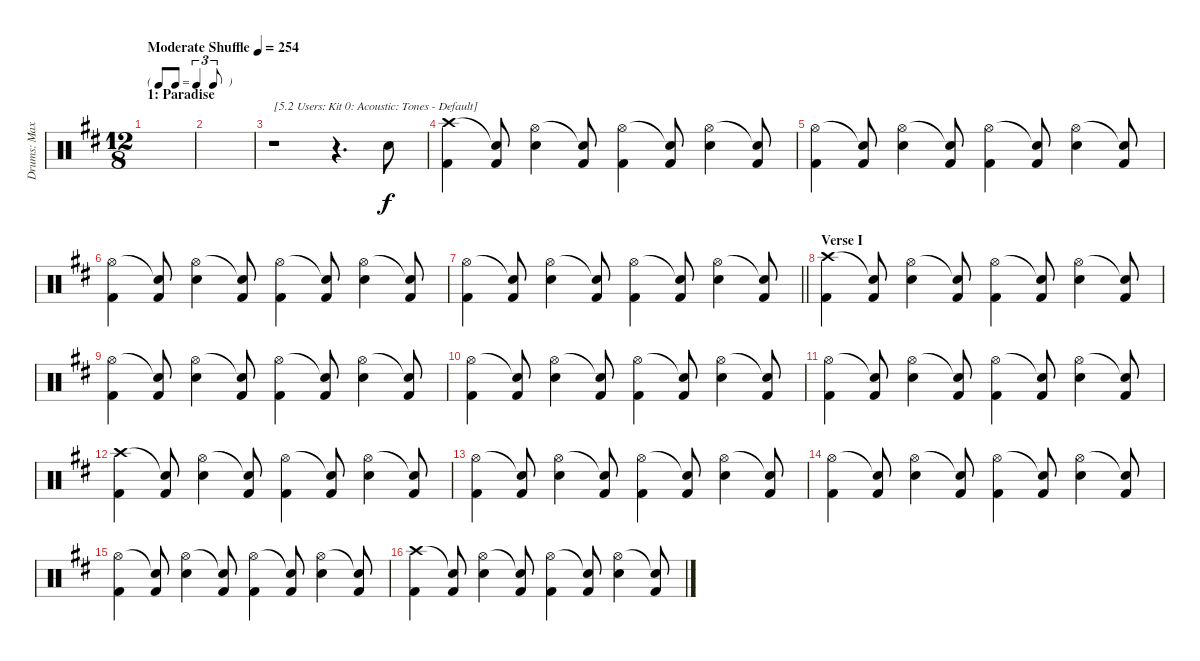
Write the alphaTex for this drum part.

\track ("Drums: Max" "Drums: Max") {instrument percussion}
\staff {score}
\articulation defaults
\ts (12 8)
\tf triplet8th
\section ("" "1: Paradise")
\tempo (254 "Moderate Shuffle")
\clef neutral
\ks d
|
|
r.1{txt "[5.2 Users: Kit 0: Acoustic: Tones - Default]"} r.4{d} "Electric Snare (hit)".8 |
("Crash high (hit)" "Kick (hit) 2").4 ("Snare (hit)"{t} "Kick (hit) 2").8 ("Hi-Hat (open)" "Electric Snare (hit)").4 ("Snare (hit)"{t} "Kick (hit) 2").8 ("Hi-Hat (open)" "Kick (hit) 2").4 ("Snare (hit)"{t} "Kick (hit) 2").8 ("Hi-Hat (open)" "Electric Snare (hit)").4 ("Snare (hit)"{t} "Kick (hit) 2").8 |
("Hi-Hat (open)" "Kick (hit) 2").4 ("Snare (hit)"{t} "Kick (hit) 2").8 ("Hi-Hat (open)" "Electric Snare (hit)").4 ("Snare (hit)"{t} "Kick (hit) 2").8 ("Hi-Hat (open)" "Kick (hit) 2").4 ("Snare (hit)"{t} "Kick (hit) 2").8 ("Hi-Hat (open)" "Electric Snare (hit)").4 ("Snare (hit)"{t} "Kick (hit) 2").8 |
("Hi-Hat (open)" "Kick (hit) 2").4 ("Snare (hit)"{t} "Kick (hit) 2").8 ("Hi-Hat (open)" "Electric Snare (hit)").4 ("Snare (hit)"{t} "Kick (hit) 2").8 ("Hi-Hat (open)" "Kick (hit) 2").4 ("Snare (hit)"{t} "Kick (hit) 2").8 ("Hi-Hat (open)" "Electric Snare (hit)").4 ("Snare (hit)"{t} "Kick (hit) 2").8 |
\barLineRight lightlight
("Hi-Hat (open)" "Kick (hit) 2").4 ("Snare (hit)"{t} "Kick (hit) 2").8 ("Hi-Hat (open)" "Electric Snare (hit)").4 ("Snare (hit)"{t} "Kick (hit) 2").8 ("Hi-Hat (open)" "Kick (hit) 2").4 ("Snare (hit)"{t} "Kick (hit) 2").8 ("Hi-Hat (open)" "Electric Snare (hit)").4 ("Snare (hit)"{t} "Kick (hit) 2").8 |
\section ("" "Verse I")
("Crash high (hit)" "Kick (hit) 2").4 ("Snare (hit)"{t} "Kick (hit) 2").8 ("Hi-Hat (open)" "Electric Snare (hit)").4 ("Snare (hit)"{t} "Kick (hit) 2").8 ("Hi-Hat (open)" "Kick (hit) 2").4 ("Snare (hit)"{t} "Kick (hit) 2").8 ("Hi-Hat (open)" "Electric Snare (hit)").4 ("Snare (hit)"{t} "Kick (hit) 2").8 |
("Hi-Hat (open)" "Kick (hit) 2").4 ("Snare (hit)"{t} "Kick (hit) 2").8 ("Hi-Hat (open)" "Electric Snare (hit)").4 ("Snare (hit)"{t} "Kick (hit) 2").8 ("Hi-Hat (open)" "Kick (hit) 2").4 ("Snare (hit)"{t} "Kick (hit) 2").8 ("Hi-Hat (open)" "Electric Snare (hit)").4 ("Snare (hit)"{t} "Kick (hit) 2").8 |
("Hi-Hat (open)" "Kick (hit) 2").4 ("Snare (hit)"{t} "Kick (hit) 2").8 ("Hi-Hat (open)" "Electric Snare (hit)").4 ("Snare (hit)"{t} "Kick (hit) 2").8 ("Hi-Hat (open)" "Kick (hit) 2").4 ("Snare (hit)"{t} "Kick (hit) 2").8 ("Hi-Hat (open)" "Electric Snare (hit)").4 ("Snare (hit)"{t} "Kick (hit) 2").8 |
("Hi-Hat (open)" "Kick (hit) 2").4 ("Snare (hit)"{t} "Kick (hit) 2").8 ("Hi-Hat (open)" "Electric Snare (hit)").4 ("Snare (hit)"{t} "Kick (hit) 2").8 ("Hi-Hat (open)" "Kick (hit) 2").4 ("Snare (hit)"{t} "Kick (hit) 2").8 ("Hi-Hat (open)" "Electric Snare (hit)").4 ("Snare (hit)"{t} "Kick (hit) 2").8 |
("Crash high (hit)" "Kick (hit) 2").4 ("Snare (hit)"{t} "Kick (hit) 2").8 ("Hi-Hat (open)" "Electric Snare (hit)").4 ("Snare (hit)"{t} "Kick (hit) 2").8 ("Hi-Hat (open)" "Kick (hit) 2").4 ("Snare (hit)"{t} "Kick (hit) 2").8 ("Hi-Hat (open)" "Electric Snare (hit)").4 ("Snare (hit)"{t} "Kick (hit) 2").8 |
("Hi-Hat (open)" "Kick (hit) 2").4 ("Snare (hit)"{t} "Kick (hit) 2").8 ("Hi-Hat (open)" "Electric Snare (hit)").4 ("Snare (hit)"{t} "Kick (hit) 2").8 ("Hi-Hat (open)" "Kick (hit) 2").4 ("Snare (hit)"{t} "Kick (hit) 2").8 ("Hi-Hat (open)" "Electric Snare (hit)").4 ("Snare (hit)"{t} "Kick (hit) 2").8 |
("Hi-Hat (open)" "Kick (hit) 2").4 ("Snare (hit)"{t} "Kick (hit) 2").8 ("Hi-Hat (open)" "Electric Snare (hit)").4 ("Snare (hit)"{t} "Kick (hit) 2").8 ("Hi-Hat (open)" "Kick (hit) 2").4 ("Snare (hit)"{t} "Kick (hit) 2").8 ("Hi-Hat (open)" "Electric Snare (hit)").4 ("Snare (hit)"{t} "Kick (hit) 2").8 |
("Hi-Hat (open)" "Kick (hit) 2").4 ("Snare (hit)"{t} "Kick (hit) 2").8 ("Hi-Hat (open)" "Electric Snare (hit)").4 ("Snare (hit)"{t} "Kick (hit) 2").8 ("Hi-Hat (open)" "Kick (hit) 2").4 ("Snare (hit)"{t} "Kick (hit) 2").8 ("Hi-Hat (open)" "Electric Snare (hit)").4 ("Snare (hit)"{t} "Kick (hit) 2").8 |
("Crash high (hit)" "Kick (hit) 2").4 ("Snare (hit)"{t} "Kick (hit) 2").8 ("Hi-Hat (open)" "Electric Snare (hit)").4 ("Snare (hit)"{t} "Kick (hit) 2").8 ("Hi-Hat (open)" "Kick (hit) 2").4 ("Snare (hit)"{t} "Kick (hit) 2").8 ("Hi-Hat (open)" "Electric Snare (hit)").4 ("Snare (hit)"{t} "Kick (hit) 2").8
